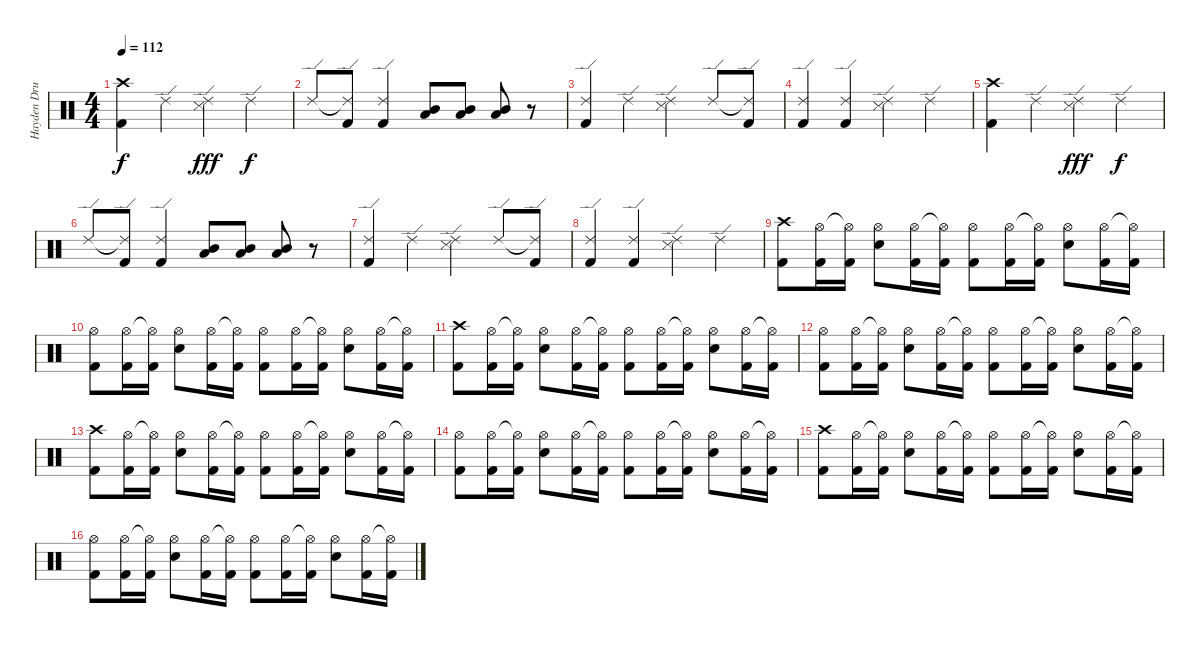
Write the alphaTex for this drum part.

\track ("Hayden Drums" "Hayden Dru") {instrument percussion}
\staff {score}
\articulation defaults
\ts (4 4)
\tempo 112
\clef neutral
\ks c
("Crash high (hit)" "Kick (hit) 2").4{dy f} "Ride (edge) 2".4 ("Ride (edge) 2" "Snare (side stick) 3").4{dy fff} "Ride (edge) 2".4{dy f} |
"Ride (edge) 2".8 ("Ride (edge) 2"{t} "Kick (hit) 2").8 ("Ride (edge) 2" "Kick (hit) 2").4 ("Low Tom (hit)" "Mid Tom (hit)").8 ("Low Tom (hit)" "Mid Tom (hit)").8 ("Low Tom (hit)" "Mid Tom (hit)").8 r.8 |
("Ride (edge) 2" "Kick (hit) 2").4 "Ride (edge) 2".4 ("Ride (edge) 2" "Snare (side stick) 3").4 "Ride (edge) 2".8 ("Ride (edge) 2"{t} "Kick (hit) 2").8 |
("Ride (edge) 2" "Kick (hit) 2").4 ("Ride (edge) 2" "Kick (hit) 2").4 ("Ride (edge) 2" "Snare (side stick) 3").4 "Ride (edge) 2".4 |
("Crash high (hit)" "Kick (hit) 2").4 "Ride (edge) 2".4 ("Ride (edge) 2" "Snare (side stick) 3").4{dy fff} "Ride (edge) 2".4{dy f} |
"Ride (edge) 2".8 ("Ride (edge) 2"{t} "Kick (hit) 2").8 ("Ride (edge) 2" "Kick (hit) 2").4 ("Low Tom (hit)" "Mid Tom (hit)").8 ("Low Tom (hit)" "Mid Tom (hit)").8 ("Low Tom (hit)" "Mid Tom (hit)").8 r.8 |
("Ride (edge) 2" "Kick (hit) 2").4 "Ride (edge) 2".4 ("Ride (edge) 2" "Snare (side stick) 3").4 "Ride (edge) 2".8 ("Ride (edge) 2"{t} "Kick (hit) 2").8 |
("Ride (edge) 2" "Kick (hit) 2").4 ("Ride (edge) 2" "Kick (hit) 2").4 ("Ride (edge) 2" "Snare (side stick) 3").4 "Ride (edge) 2".4 |
("Crash high (hit)" "Kick (hit) 2").8 ("Hi-Hat (open)" "Kick (hit) 2").16 ("Hi-Hat (open)"{t} "Kick (hit) 2").16 ("Hi-Hat (open)" "Electric Snare (hit)").8 ("Hi-Hat (open)" "Kick (hit) 2").16 ("Hi-Hat (open)"{t} "Kick (hit) 2").16 ("Hi-Hat (open)" "Kick (hit) 2").8 ("Hi-Hat (open)" "Kick (hit) 2").16 ("Hi-Hat (open)"{t} "Kick (hit) 2").16 ("Hi-Hat (open)" "Electric Snare (hit)").8 ("Hi-Hat (open)" "Kick (hit) 2").16 ("Hi-Hat (open)"{t} "Kick (hit) 2").16 |
("Hi-Hat (open)" "Kick (hit) 2").8 ("Hi-Hat (open)" "Kick (hit) 2").16 ("Hi-Hat (open)"{t} "Kick (hit) 2").16 ("Hi-Hat (open)" "Electric Snare (hit)").8 ("Hi-Hat (open)" "Kick (hit) 2").16 ("Hi-Hat (open)"{t} "Kick (hit) 2").16 ("Hi-Hat (open)" "Kick (hit) 2").8 ("Hi-Hat (open)" "Kick (hit) 2").16 ("Hi-Hat (open)"{t} "Kick (hit) 2").16 ("Hi-Hat (open)" "Electric Snare (hit)").8 ("Hi-Hat (open)" "Kick (hit) 2").16 ("Hi-Hat (open)"{t} "Kick (hit) 2").16 |
("Crash high (hit)" "Kick (hit) 2").8 ("Hi-Hat (open)" "Kick (hit) 2").16 ("Hi-Hat (open)"{t} "Kick (hit) 2").16 ("Hi-Hat (open)" "Electric Snare (hit)").8 ("Hi-Hat (open)" "Kick (hit) 2").16 ("Hi-Hat (open)"{t} "Kick (hit) 2").16 ("Hi-Hat (open)" "Kick (hit) 2").8 ("Hi-Hat (open)" "Kick (hit) 2").16 ("Hi-Hat (open)"{t} "Kick (hit) 2").16 ("Hi-Hat (open)" "Electric Snare (hit)").8 ("Hi-Hat (open)" "Kick (hit) 2").16 ("Hi-Hat (open)"{t} "Kick (hit) 2").16 |
("Hi-Hat (open)" "Kick (hit) 2").8 ("Hi-Hat (open)" "Kick (hit) 2").16 ("Hi-Hat (open)"{t} "Kick (hit) 2").16 ("Hi-Hat (open)" "Electric Snare (hit)").8 ("Hi-Hat (open)" "Kick (hit) 2").16 ("Hi-Hat (open)"{t} "Kick (hit) 2").16 ("Hi-Hat (open)" "Kick (hit) 2").8 ("Hi-Hat (open)" "Kick (hit) 2").16 ("Hi-Hat (open)"{t} "Kick (hit) 2").16 ("Hi-Hat (open)" "Electric Snare (hit)").8 ("Hi-Hat (open)" "Kick (hit) 2").16 ("Hi-Hat (open)"{t} "Kick (hit) 2").16 |
("Crash high (hit)" "Kick (hit) 2").8 ("Hi-Hat (open)" "Kick (hit) 2").16 ("Hi-Hat (open)"{t} "Kick (hit) 2").16 ("Hi-Hat (open)" "Electric Snare (hit)").8 ("Hi-Hat (open)" "Kick (hit) 2").16 ("Hi-Hat (open)"{t} "Kick (hit) 2").16 ("Hi-Hat (open)" "Kick (hit) 2").8 ("Hi-Hat (open)" "Kick (hit) 2").16 ("Hi-Hat (open)"{t} "Kick (hit) 2").16 ("Hi-Hat (open)" "Electric Snare (hit)").8 ("Hi-Hat (open)" "Kick (hit) 2").16 ("Hi-Hat (open)"{t} "Kick (hit) 2").16 |
("Hi-Hat (open)" "Kick (hit) 2").8 ("Hi-Hat (open)" "Kick (hit) 2").16 ("Hi-Hat (open)"{t} "Kick (hit) 2").16 ("Hi-Hat (open)" "Electric Snare (hit)").8 ("Hi-Hat (open)" "Kick (hit) 2").16 ("Hi-Hat (open)"{t} "Kick (hit) 2").16 ("Hi-Hat (open)" "Kick (hit) 2").8 ("Hi-Hat (open)" "Kick (hit) 2").16 ("Hi-Hat (open)"{t} "Kick (hit) 2").16 ("Hi-Hat (open)" "Electric Snare (hit)").8 ("Hi-Hat (open)" "Kick (hit) 2").16 ("Hi-Hat (open)"{t} "Kick (hit) 2").16 |
("Crash high (hit)" "Kick (hit) 2").8 ("Hi-Hat (open)" "Kick (hit) 2").16 ("Hi-Hat (open)"{t} "Kick (hit) 2").16 ("Hi-Hat (open)" "Electric Snare (hit)").8 ("Hi-Hat (open)" "Kick (hit) 2").16 ("Hi-Hat (open)"{t} "Kick (hit) 2").16 ("Hi-Hat (open)" "Kick (hit) 2").8 ("Hi-Hat (open)" "Kick (hit) 2").16 ("Hi-Hat (open)"{t} "Kick (hit) 2").16 ("Hi-Hat (open)" "Electric Snare (hit)").8 ("Hi-Hat (open)" "Kick (hit) 2").16 ("Hi-Hat (open)"{t} "Kick (hit) 2").16 |
("Hi-Hat (open)" "Kick (hit) 2").8 ("Hi-Hat (open)" "Kick (hit) 2").16 ("Hi-Hat (open)"{t} "Kick (hit) 2").16 ("Hi-Hat (open)" "Electric Snare (hit)").8 ("Hi-Hat (open)" "Kick (hit) 2").16 ("Hi-Hat (open)"{t} "Kick (hit) 2").16 ("Hi-Hat (open)" "Kick (hit) 2").8 ("Hi-Hat (open)" "Kick (hit) 2").16 ("Hi-Hat (open)"{t} "Kick (hit) 2").16 ("Hi-Hat (open)" "Electric Snare (hit)").8 ("Hi-Hat (open)" "Kick (hit) 2").16 ("Hi-Hat (open)"{t} "Kick (hit) 2").16
